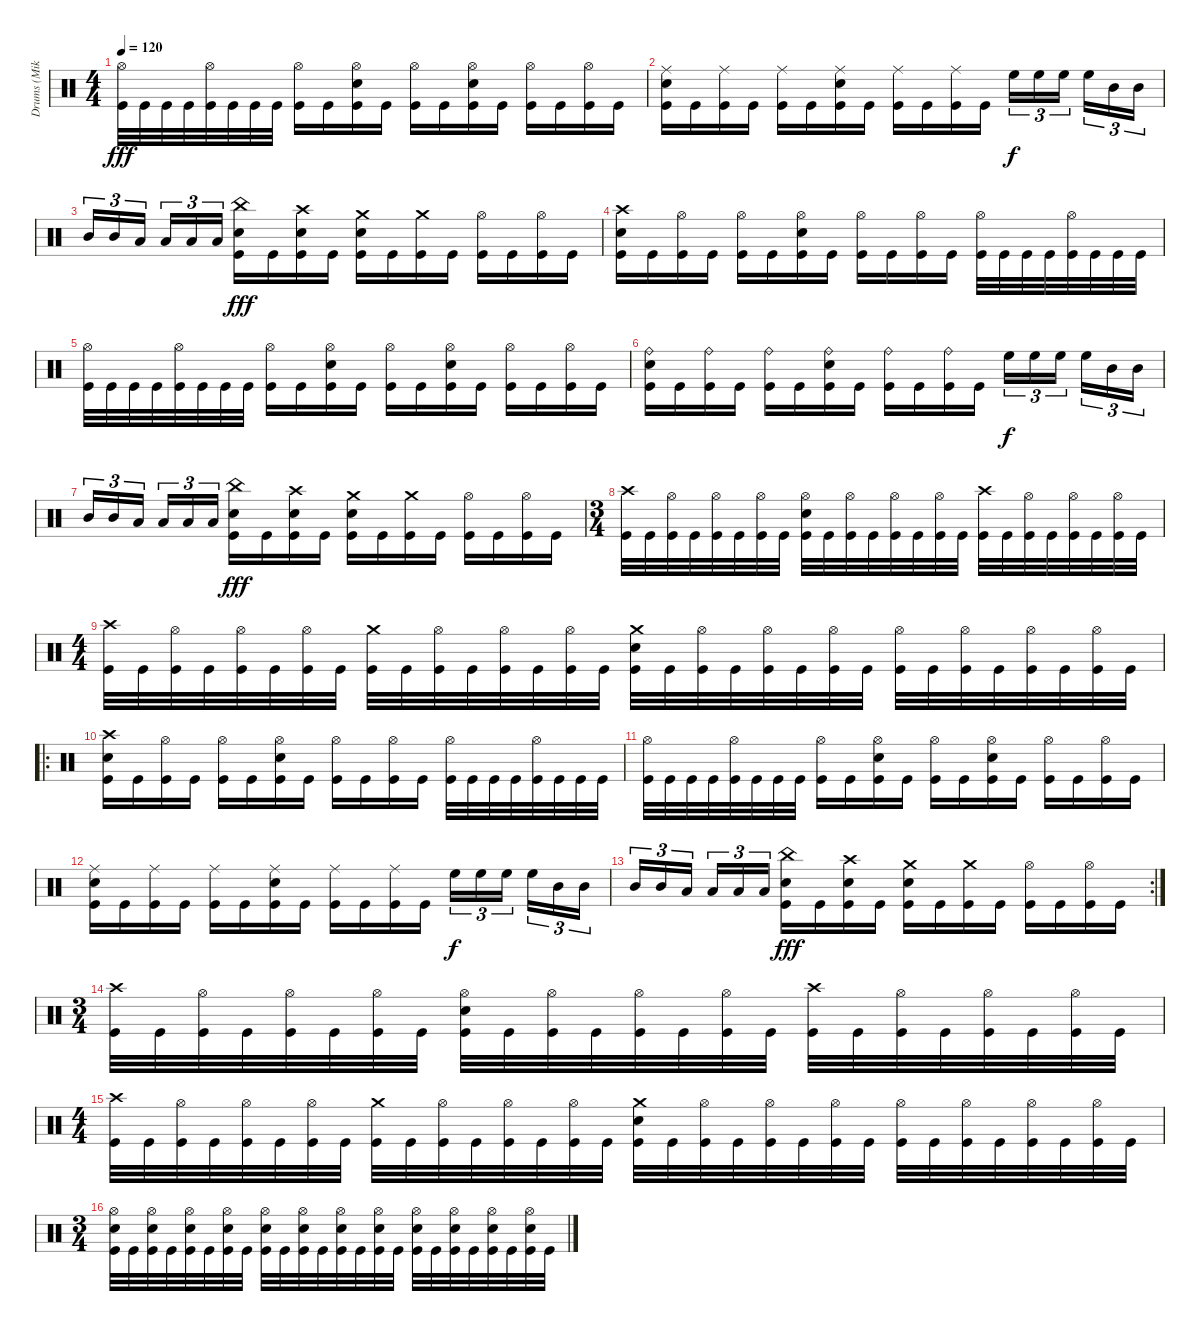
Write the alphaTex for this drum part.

\track ("Drums (Mike)" "Drums (Mik") {instrument percussion}
\staff {score}
\articulation defaults
\ts (4 4)
\tempo 120
\clef neutral
\ks c
("Hi-Hat (open)" "Kick (hit)").32{dy fff} "Kick (hit)".32 "Kick (hit)".32 "Kick (hit)".32 ("Hi-Hat (open)" "Kick (hit)").32 "Kick (hit)".32 "Kick (hit)".32 "Kick (hit)".32 ("Hi-Hat (open)" "Kick (hit)").16 "Kick (hit)".16 ("Hi-Hat (open)" "Electric Snare (hit)" "Kick (hit)").16 "Kick (hit)".16 ("Hi-Hat (open)" "Kick (hit)").16 "Kick (hit)".16 ("Hi-Hat (open)" "Electric Snare (hit)" "Kick (hit)").16 "Kick (hit)".16 ("Hi-Hat (open)" "Kick (hit)").16 "Kick (hit)".16 ("Hi-Hat (open)" "Kick (hit)").16 "Kick (hit)".16 |
("Ride (middle)" "Electric Snare (hit)" "Kick (hit)").16 "Kick (hit)".16 ("Ride (middle)" "Kick (hit)").16 "Kick (hit)".16 ("Ride (middle)" "Kick (hit)").16 "Kick (hit)".16 ("Ride (middle)" "Electric Snare (hit)" "Kick (hit)").16 "Kick (hit)".16 ("Ride (middle)" "Kick (hit)").16 "Kick (hit)".16 ("Ride (middle)" "Kick (hit)").16 "Kick (hit)".16 "High Floor Tom (hit)".16{tu (3 2) dy f} "High Floor Tom (hit)".16{tu (3 2)} "High Floor Tom (hit)".16{tu (3 2)} "High Floor Tom (hit)".16{tu (3 2)} "Mid Tom (hit)".16{tu (3 2)} "Mid Tom (hit)".16{tu (3 2)} |
"Mid Tom (hit)".16{tu (3 2)} "Mid Tom (hit)".16{tu (3 2)} "Low Tom (hit)".16{tu (3 2)} "Low Tom (hit)".16{tu (3 2)} "Low Tom (hit)".16{tu (3 2)} "Low Tom (hit)".16{tu (3 2)} ("China (hit)" "Electric Snare (hit)" "Kick (hit)").16{dy fff} "Kick (hit)".16 ("Crash high (hit)" "Electric Snare (hit)" "Kick (hit)").16 "Kick (hit)".16 ("Crash medium (hit)" "Electric Snare (hit)" "Kick (hit)").16 "Kick (hit)".16 ("Crash medium (hit)" "Kick (hit)").16 "Kick (hit)".16 ("Hi-Hat (open)" "Kick (hit)").16 "Kick (hit)".16 ("Hi-Hat (open)" "Kick (hit)").16 "Kick (hit)".16 |
("Crash high (hit)" "Electric Snare (hit)" "Kick (hit)").16 "Kick (hit)".16 ("Hi-Hat (open)" "Kick (hit)").16 "Kick (hit)".16 ("Hi-Hat (open)" "Kick (hit)").16 "Kick (hit)".16 ("Hi-Hat (open)" "Electric Snare (hit)" "Kick (hit)").16 "Kick (hit)".16 ("Hi-Hat (open)" "Kick (hit)").16 "Kick (hit)".16 ("Hi-Hat (open)" "Kick (hit)").16 "Kick (hit)".16 ("Hi-Hat (open)" "Kick (hit)").32 "Kick (hit)".32 "Kick (hit)".32 "Kick (hit)".32 ("Hi-Hat (open)" "Kick (hit)").32 "Kick (hit)".32 "Kick (hit)".32 "Kick (hit)".32 |
("Hi-Hat (open)" "Kick (hit)").32 "Kick (hit)".32 "Kick (hit)".32 "Kick (hit)".32 ("Hi-Hat (open)" "Kick (hit)").32 "Kick (hit)".32 "Kick (hit)".32 "Kick (hit)".32 ("Hi-Hat (open)" "Kick (hit)").16 "Kick (hit)".16 ("Hi-Hat (open)" "Electric Snare (hit)" "Kick (hit)").16 "Kick (hit)".16 ("Hi-Hat (open)" "Kick (hit)").16 "Kick (hit)".16 ("Hi-Hat (open)" "Electric Snare (hit)" "Kick (hit)").16 "Kick (hit)".16 ("Hi-Hat (open)" "Kick (hit)").16 "Kick (hit)".16 ("Hi-Hat (open)" "Kick (hit)").16 "Kick (hit)".16 |
("Ride (bell)" "Electric Snare (hit)" "Kick (hit)").16 "Kick (hit)".16 ("Ride (bell)" "Kick (hit)").16 "Kick (hit)".16 ("Ride (bell)" "Kick (hit)").16 "Kick (hit)".16 ("Ride (bell)" "Electric Snare (hit)" "Kick (hit)").16 "Kick (hit)".16 ("Ride (bell)" "Kick (hit)").16 "Kick (hit)".16 ("Ride (bell)" "Kick (hit)").16 "Kick (hit)".16 "High Floor Tom (hit)".16{tu (3 2) dy f} "High Floor Tom (hit)".16{tu (3 2)} "High Floor Tom (hit)".16{tu (3 2)} "High Floor Tom (hit)".16{tu (3 2)} "Mid Tom (hit)".16{tu (3 2)} "Mid Tom (hit)".16{tu (3 2)} |
"Mid Tom (hit)".16{tu (3 2)} "Mid Tom (hit)".16{tu (3 2)} "Low Tom (hit)".16{tu (3 2)} "Low Tom (hit)".16{tu (3 2)} "Low Tom (hit)".16{tu (3 2)} "Low Tom (hit)".16{tu (3 2)} ("China (hit)" "Electric Snare (hit)" "Kick (hit)").16{dy fff} "Kick (hit)".16 ("Crash high (hit)" "Electric Snare (hit)" "Kick (hit)").16 "Kick (hit)".16 ("Crash medium (hit)" "Electric Snare (hit)" "Kick (hit)").16 "Kick (hit)".16 ("Crash medium (hit)" "Kick (hit)").16 "Kick (hit)".16 ("Hi-Hat (open)" "Kick (hit)").16 "Kick (hit)".16 ("Hi-Hat (open)" "Kick (hit)").16 "Kick (hit)".16 |
\ts (3 4)
("Crash high (hit)" "Kick (hit)").32 "Kick (hit)".32 ("Hi-Hat (open)" "Kick (hit)").32 "Kick (hit)".32 ("Hi-Hat (open)" "Kick (hit)").32 "Kick (hit)".32 ("Hi-Hat (open)" "Kick (hit)").32 "Kick (hit)".32 ("Hi-Hat (open)" "Electric Snare (hit)" "Kick (hit)").32 "Kick (hit)".32 ("Hi-Hat (open)" "Kick (hit)").32 "Kick (hit)".32 ("Hi-Hat (open)" "Kick (hit)").32 "Kick (hit)".32 ("Hi-Hat (open)" "Kick (hit)").32 "Kick (hit)".32 ("Crash high (hit)" "Kick (hit)").32 "Kick (hit)".32 ("Hi-Hat (open)" "Kick (hit)").32 "Kick (hit)".32 ("Hi-Hat (open)" "Kick (hit)").32 "Kick (hit)".32 ("Hi-Hat (open)" "Kick (hit)").32 "Kick (hit)".32 |
\ts (4 4)
("Crash high (hit)" "Kick (hit)").32 "Kick (hit)".32 ("Hi-Hat (open)" "Kick (hit)").32 "Kick (hit)".32 ("Hi-Hat (open)" "Kick (hit)").32 "Kick (hit)".32 ("Hi-Hat (open)" "Kick (hit)").32 "Kick (hit)".32 ("Crash medium (hit)" "Kick (hit)").32 "Kick (hit)".32 ("Hi-Hat (open)" "Kick (hit)").32 "Kick (hit)".32 ("Hi-Hat (open)" "Kick (hit)").32 "Kick (hit)".32 ("Hi-Hat (open)" "Kick (hit)").32 "Kick (hit)".32 ("Crash medium (hit)" "Electric Snare (hit)" "Kick (hit)").32 "Kick (hit)".32 ("Hi-Hat (open)" "Kick (hit)").32 "Kick (hit)".32 ("Hi-Hat (open)" "Kick (hit)").32 "Kick (hit)".32 ("Hi-Hat (open)" "Kick (hit)").32 "Kick (hit)".32 ("Hi-Hat (open)" "Kick (hit)").32 "Kick (hit)".32 ("Hi-Hat (open)" "Kick (hit)").32 "Kick (hit)".32 ("Hi-Hat (open)" "Kick (hit)").32 "Kick (hit)".32 ("Hi-Hat (open)" "Kick (hit)").32 "Kick (hit)".32 |
\ro
("Crash high (hit)" "Electric Snare (hit)" "Kick (hit)").16 "Kick (hit)".16 ("Hi-Hat (open)" "Kick (hit)").16 "Kick (hit)".16 ("Hi-Hat (open)" "Kick (hit)").16 "Kick (hit)".16 ("Hi-Hat (open)" "Electric Snare (hit)" "Kick (hit)").16 "Kick (hit)".16 ("Hi-Hat (open)" "Kick (hit)").16 "Kick (hit)".16 ("Hi-Hat (open)" "Kick (hit)").16 "Kick (hit)".16 ("Hi-Hat (open)" "Kick (hit)").32 "Kick (hit)".32 "Kick (hit)".32 "Kick (hit)".32 ("Hi-Hat (open)" "Kick (hit)").32 "Kick (hit)".32 "Kick (hit)".32 "Kick (hit)".32 |
("Hi-Hat (open)" "Kick (hit)").32 "Kick (hit)".32 "Kick (hit)".32 "Kick (hit)".32 ("Hi-Hat (open)" "Kick (hit)").32 "Kick (hit)".32 "Kick (hit)".32 "Kick (hit)".32 ("Hi-Hat (open)" "Kick (hit)").16 "Kick (hit)".16 ("Hi-Hat (open)" "Electric Snare (hit)" "Kick (hit)").16 "Kick (hit)".16 ("Hi-Hat (open)" "Kick (hit)").16 "Kick (hit)".16 ("Hi-Hat (open)" "Electric Snare (hit)" "Kick (hit)").16 "Kick (hit)".16 ("Hi-Hat (open)" "Kick (hit)").16 "Kick (hit)".16 ("Hi-Hat (open)" "Kick (hit)").16 "Kick (hit)".16 |
("Ride (middle)" "Electric Snare (hit)" "Kick (hit)").16 "Kick (hit)".16 ("Ride (middle)" "Kick (hit)").16 "Kick (hit)".16 ("Ride (middle)" "Kick (hit)").16 "Kick (hit)".16 ("Ride (middle)" "Electric Snare (hit)" "Kick (hit)").16 "Kick (hit)".16 ("Ride (middle)" "Kick (hit)").16 "Kick (hit)".16 ("Ride (middle)" "Kick (hit)").16 "Kick (hit)".16 "High Floor Tom (hit)".16{tu (3 2) dy f} "High Floor Tom (hit)".16{tu (3 2)} "High Floor Tom (hit)".16{tu (3 2)} "High Floor Tom (hit)".16{tu (3 2)} "Mid Tom (hit)".16{tu (3 2)} "Mid Tom (hit)".16{tu (3 2)} |
\rc 2 "Mid Tom (hit)".16{tu (3 2)} "Mid Tom (hit)".16{tu (3 2)} "Low Tom (hit)".16{tu (3 2)} "Low Tom (hit)".16{tu (3 2)} "Low Tom (hit)".16{tu (3 2)} "Low Tom (hit)".16{tu (3 2)}
("China (hit)" "Electric Snare (hit)" "Kick (hit)").16{dy fff} "Kick (hit)".16 ("Crash high (hit)" "Electric Snare (hit)" "Kick (hit)").16 "Kick (hit)".16 ("Crash medium (hit)" "Electric Snare (hit)" "Kick (hit)").16 "Kick (hit)".16 ("Crash medium (hit)" "Kick (hit)").16 "Kick (hit)".16 ("Hi-Hat (open)" "Kick (hit)").16 "Kick (hit)".16 ("Hi-Hat (open)" "Kick (hit)").16 "Kick (hit)".16 |
\ts (3 4)
("Crash high (hit)" "Kick (hit)").32 "Kick (hit)".32 ("Hi-Hat (open)" "Kick (hit)").32 "Kick (hit)".32 ("Hi-Hat (open)" "Kick (hit)").32 "Kick (hit)".32 ("Hi-Hat (open)" "Kick (hit)").32 "Kick (hit)".32 ("Hi-Hat (open)" "Electric Snare (hit)" "Kick (hit)").32 "Kick (hit)".32 ("Hi-Hat (open)" "Kick (hit)").32 "Kick (hit)".32 ("Hi-Hat (open)" "Kick (hit)").32 "Kick (hit)".32 ("Hi-Hat (open)" "Kick (hit)").32 "Kick (hit)".32 ("Crash high (hit)" "Kick (hit)").32 "Kick (hit)".32 ("Hi-Hat (open)" "Kick (hit)").32 "Kick (hit)".32 ("Hi-Hat (open)" "Kick (hit)").32 "Kick (hit)".32 ("Hi-Hat (open)" "Kick (hit)").32 "Kick (hit)".32 |
\ts (4 4)
("Crash high (hit)" "Kick (hit)").32 "Kick (hit)".32 ("Hi-Hat (open)" "Kick (hit)").32 "Kick (hit)".32 ("Hi-Hat (open)" "Kick (hit)").32 "Kick (hit)".32 ("Hi-Hat (open)" "Kick (hit)").32 "Kick (hit)".32 ("Crash medium (hit)" "Kick (hit)").32 "Kick (hit)".32 ("Hi-Hat (open)" "Kick (hit)").32 "Kick (hit)".32 ("Hi-Hat (open)" "Kick (hit)").32 "Kick (hit)".32 ("Hi-Hat (open)" "Kick (hit)").32 "Kick (hit)".32 ("Crash medium (hit)" "Electric Snare (hit)" "Kick (hit)").32 "Kick (hit)".32 ("Hi-Hat (open)" "Kick (hit)").32 "Kick (hit)".32 ("Hi-Hat (open)" "Kick (hit)").32 "Kick (hit)".32 ("Hi-Hat (open)" "Kick (hit)").32 "Kick (hit)".32 ("Hi-Hat (open)" "Kick (hit)").32 "Kick (hit)".32 ("Hi-Hat (open)" "Kick (hit)").32 "Kick (hit)".32 ("Hi-Hat (open)" "Kick (hit)").32 "Kick (hit)".32 ("Hi-Hat (open)" "Kick (hit)").32 "Kick (hit)".32 |
\ts (3 4)
("Hi-Hat (open)" "Electric Snare (hit)" "Kick (hit)").32 "Kick (hit)".32 ("Hi-Hat (open)" "Electric Snare (hit)" "Kick (hit)").32 "Kick (hit)".32 ("Hi-Hat (open)" "Electric Snare (hit)" "Kick (hit)").32 "Kick (hit)".32 ("Hi-Hat (open)" "Electric Snare (hit)" "Kick (hit)").32 "Kick (hit)".32 ("Hi-Hat (open)" "Electric Snare (hit)" "Kick (hit)").32 "Kick (hit)".32 ("Hi-Hat (open)" "Electric Snare (hit)" "Kick (hit)").32 "Kick (hit)".32 ("Hi-Hat (open)" "Electric Snare (hit)" "Kick (hit)").32 "Kick (hit)".32 ("Hi-Hat (open)" "Electric Snare (hit)" "Kick (hit)").32 "Kick (hit)".32 ("Hi-Hat (open)" "Electric Snare (hit)" "Kick (hit)").32 "Kick (hit)".32 ("Hi-Hat (open)" "Electric Snare (hit)" "Kick (hit)").32 "Kick (hit)".32 ("Hi-Hat (open)" "Electric Snare (hit)" "Kick (hit)").32 "Kick (hit)".32 ("Hi-Hat (open)" "Electric Snare (hit)" "Kick (hit)").32 "Kick (hit)".32
